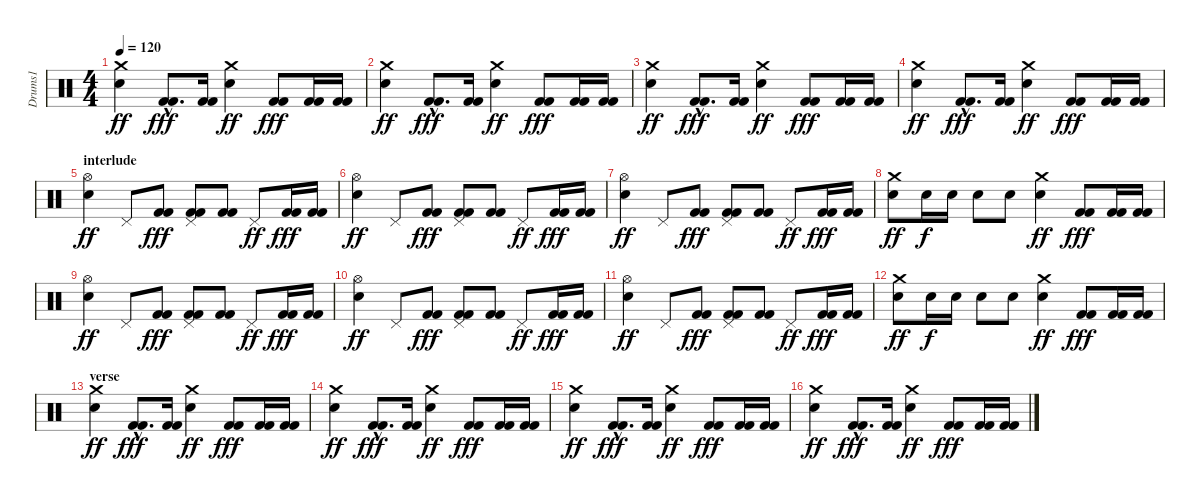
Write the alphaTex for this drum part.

\track ("Drums1" "Drums1") {instrument percussion}
\staff {score}
\articulation defaults
\ts (4 4)
\tempo 120
\clef neutral
\ks c
("Crash medium (hit)" "Snare (hit) 2").4{dy ff} ("Kick (hit) 2"{hac} "Kick (hit) 2"{hac}).8{d dy fff} ("Kick (hit) 2" "Kick (hit) 2").16 ("Crash medium (hit)" "Snare (hit) 2").4{dy ff} ("Kick (hit) 2" "Kick (hit) 2").8{dy fff} ("Kick (hit) 2" "Kick (hit) 2").16 ("Kick (hit) 2" "Kick (hit) 2").16 |
("Crash medium (hit)" "Snare (hit) 2").4{dy ff} ("Kick (hit) 2"{hac} "Kick (hit) 2"{hac}).8{d dy fff} ("Kick (hit) 2" "Kick (hit) 2").16 ("Crash medium (hit)" "Snare (hit) 2").4{dy ff} ("Kick (hit) 2" "Kick (hit) 2").8{dy fff} ("Kick (hit) 2" "Kick (hit) 2").16 ("Kick (hit) 2" "Kick (hit) 2").16 |
("Crash medium (hit)" "Snare (hit) 2").4{dy ff} ("Kick (hit) 2"{hac} "Kick (hit) 2"{hac}).8{d dy fff} ("Kick (hit) 2" "Kick (hit) 2").16 ("Crash medium (hit)" "Snare (hit) 2").4{dy ff} ("Kick (hit) 2" "Kick (hit) 2").8{dy fff} ("Kick (hit) 2" "Kick (hit) 2").16 ("Kick (hit) 2" "Kick (hit) 2").16 |
("Crash medium (hit)" "Snare (hit) 2").4{dy ff} ("Kick (hit) 2"{hac} "Kick (hit) 2"{hac}).8{d dy fff} ("Kick (hit) 2" "Kick (hit) 2").16 ("Crash medium (hit)" "Snare (hit) 2").4{dy ff} ("Kick (hit) 2" "Kick (hit) 2").8{dy fff} ("Kick (hit) 2" "Kick (hit) 2").16 ("Kick (hit) 2" "Kick (hit) 2").16 |
\section ("" "interlude")
("Hi-Hat (open)" "Electric Snare (hit)").4{dy ff} "Pedal Hi-Hat (hit)".8 ("Kick (hit) 2" "Kick (hit) 2").8{dy fff} ("Pedal Hi-Hat (hit)" "Kick (hit) 2" "Kick (hit) 2").8 ("Kick (hit) 2" "Kick (hit) 2").8 "Pedal Hi-Hat (hit)".8{dy ff} ("Kick (hit) 2" "Kick (hit) 2").16{dy fff} ("Kick (hit) 2" "Kick (hit) 2").16 |
("Hi-Hat (open)" "Electric Snare (hit)").4{dy ff} "Pedal Hi-Hat (hit)".8 ("Kick (hit) 2" "Kick (hit) 2").8{dy fff} ("Pedal Hi-Hat (hit)" "Kick (hit) 2" "Kick (hit) 2").8 ("Kick (hit) 2" "Kick (hit) 2").8 "Pedal Hi-Hat (hit)".8{dy ff} ("Kick (hit) 2" "Kick (hit) 2").16{dy fff} ("Kick (hit) 2" "Kick (hit) 2").16 |
("Hi-Hat (open)" "Electric Snare (hit)").4{dy ff} "Pedal Hi-Hat (hit)".8 ("Kick (hit) 2" "Kick (hit) 2").8{dy fff} ("Pedal Hi-Hat (hit)" "Kick (hit) 2" "Kick (hit) 2").8 ("Kick (hit) 2" "Kick (hit) 2").8 "Pedal Hi-Hat (hit)".8{dy ff} ("Kick (hit) 2" "Kick (hit) 2").16{dy fff} ("Kick (hit) 2" "Kick (hit) 2").16 |
("Electric Snare (hit)" "Crash medium (hit)").8{dy ff} "Electric Snare (hit)".16{dy f} "Electric Snare (hit)".16 "Electric Snare (hit)".8 "Electric Snare (hit)".8 ("Electric Snare (hit)" "Crash medium (hit)").4{dy ff} ("Kick (hit) 2" "Kick (hit) 2").8{dy fff} ("Kick (hit) 2" "Kick (hit) 2").16 ("Kick (hit) 2" "Kick (hit) 2").16 |
("Hi-Hat (open)" "Electric Snare (hit)").4{dy ff} "Pedal Hi-Hat (hit)".8 ("Kick (hit) 2" "Kick (hit) 2").8{dy fff} ("Pedal Hi-Hat (hit)" "Kick (hit) 2" "Kick (hit) 2").8 ("Kick (hit) 2" "Kick (hit) 2").8 "Pedal Hi-Hat (hit)".8{dy ff} ("Kick (hit) 2" "Kick (hit) 2").16{dy fff} ("Kick (hit) 2" "Kick (hit) 2").16 |
("Hi-Hat (open)" "Electric Snare (hit)").4{dy ff} "Pedal Hi-Hat (hit)".8 ("Kick (hit) 2" "Kick (hit) 2").8{dy fff} ("Pedal Hi-Hat (hit)" "Kick (hit) 2" "Kick (hit) 2").8 ("Kick (hit) 2" "Kick (hit) 2").8 "Pedal Hi-Hat (hit)".8{dy ff} ("Kick (hit) 2" "Kick (hit) 2").16{dy fff} ("Kick (hit) 2" "Kick (hit) 2").16 |
("Hi-Hat (open)" "Electric Snare (hit)").4{dy ff} "Pedal Hi-Hat (hit)".8 ("Kick (hit) 2" "Kick (hit) 2").8{dy fff} ("Pedal Hi-Hat (hit)" "Kick (hit) 2" "Kick (hit) 2").8 ("Kick (hit) 2" "Kick (hit) 2").8 "Pedal Hi-Hat (hit)".8{dy ff} ("Kick (hit) 2" "Kick (hit) 2").16{dy fff} ("Kick (hit) 2" "Kick (hit) 2").16 |
("Electric Snare (hit)" "Crash medium (hit)").8{dy ff} "Electric Snare (hit)".16{dy f} "Electric Snare (hit)".16 "Electric Snare (hit)".8 "Electric Snare (hit)".8 ("Electric Snare (hit)" "Crash medium (hit)").4{dy ff} ("Kick (hit) 2" "Kick (hit) 2").8{dy fff} ("Kick (hit) 2" "Kick (hit) 2").16 ("Kick (hit) 2" "Kick (hit) 2").16 |
\section ("" "verse")
("Crash medium (hit)" "Snare (hit) 2").4{dy ff} ("Kick (hit) 2"{hac} "Kick (hit) 2"{hac}).8{d dy fff} ("Kick (hit) 2" "Kick (hit) 2").16 ("Crash medium (hit)" "Snare (hit) 2").4{dy ff} ("Kick (hit) 2" "Kick (hit) 2").8{dy fff} ("Kick (hit) 2" "Kick (hit) 2").16 ("Kick (hit) 2" "Kick (hit) 2").16 |
("Crash medium (hit)" "Snare (hit) 2").4{dy ff} ("Kick (hit) 2"{hac} "Kick (hit) 2"{hac}).8{d dy fff} ("Kick (hit) 2" "Kick (hit) 2").16 ("Crash medium (hit)" "Snare (hit) 2").4{dy ff} ("Kick (hit) 2" "Kick (hit) 2").8{dy fff} ("Kick (hit) 2" "Kick (hit) 2").16 ("Kick (hit) 2" "Kick (hit) 2").16 |
("Crash medium (hit)" "Snare (hit) 2").4{dy ff} ("Kick (hit) 2"{hac} "Kick (hit) 2"{hac}).8{d dy fff} ("Kick (hit) 2" "Kick (hit) 2").16 ("Crash medium (hit)" "Snare (hit) 2").4{dy ff} ("Kick (hit) 2" "Kick (hit) 2").8{dy fff} ("Kick (hit) 2" "Kick (hit) 2").16 ("Kick (hit) 2" "Kick (hit) 2").16 |
("Crash medium (hit)" "Snare (hit) 2").4{dy ff} ("Kick (hit) 2"{hac} "Kick (hit) 2"{hac}).8{d dy fff} ("Kick (hit) 2" "Kick (hit) 2").16 ("Crash medium (hit)" "Snare (hit) 2").4{dy ff} ("Kick (hit) 2" "Kick (hit) 2").8{dy fff} ("Kick (hit) 2" "Kick (hit) 2").16 ("Kick (hit) 2" "Kick (hit) 2").16
